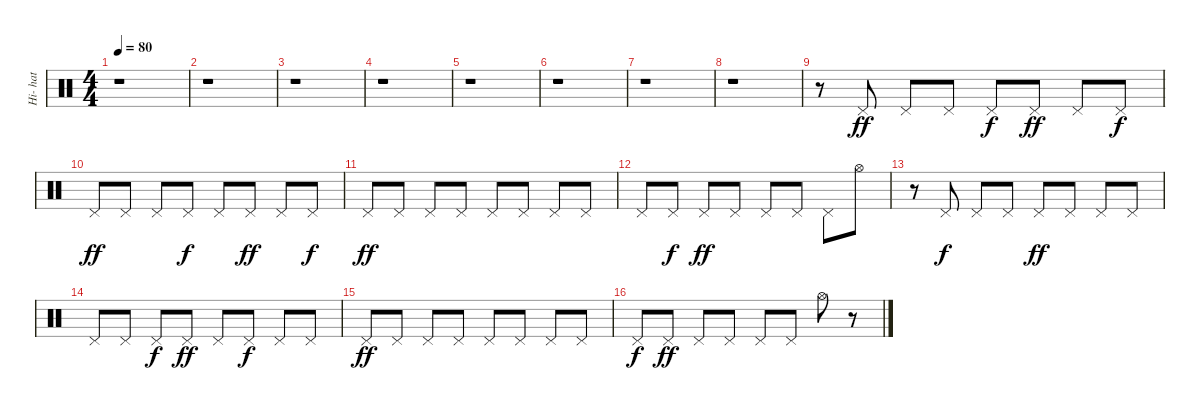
\track ("Hi- hat" "Hi- hat") {instrument percussion}
\staff {score}
\articulation defaults
\ts (4 4)
\tempo 80
\clef neutral
\ks c
r.1{dy ff} |
r.1 |
r.1 |
r.1 |
r.1 |
r.1 |
r.1 |
r.1 |
r.8 "Pedal Hi-Hat (hit)".8 "Pedal Hi-Hat (hit)".8 "Pedal Hi-Hat (hit)".8 "Pedal Hi-Hat (hit)".8{dy f} "Pedal Hi-Hat (hit)".8{dy ff} "Pedal Hi-Hat (hit)".8 "Pedal Hi-Hat (hit)".8{dy f} |
"Pedal Hi-Hat (hit)".8{dy ff} "Pedal Hi-Hat (hit)".8 "Pedal Hi-Hat (hit)".8 "Pedal Hi-Hat (hit)".8{dy f} "Pedal Hi-Hat (hit)".8 "Pedal Hi-Hat (hit)".8{dy ff} "Pedal Hi-Hat (hit)".8 "Pedal Hi-Hat (hit)".8{dy f} |
"Pedal Hi-Hat (hit)".8{dy ff} "Pedal Hi-Hat (hit)".8 "Pedal Hi-Hat (hit)".8 "Pedal Hi-Hat (hit)".8 "Pedal Hi-Hat (hit)".8 "Pedal Hi-Hat (hit)".8 "Pedal Hi-Hat (hit)".8 "Pedal Hi-Hat (hit)".8 |
"Pedal Hi-Hat (hit)".8 "Pedal Hi-Hat (hit)".8{dy f} "Pedal Hi-Hat (hit)".8{dy ff} "Pedal Hi-Hat (hit)".8 "Pedal Hi-Hat (hit)".8 "Pedal Hi-Hat (hit)".8 "Pedal Hi-Hat (hit)".8 "Hi-Hat (open)".8 |
r.8 "Pedal Hi-Hat (hit)".8{dy f} "Pedal Hi-Hat (hit)".8 "Pedal Hi-Hat (hit)".8 "Pedal Hi-Hat (hit)".8{dy ff} "Pedal Hi-Hat (hit)".8 "Pedal Hi-Hat (hit)".8 "Pedal Hi-Hat (hit)".8 |
"Pedal Hi-Hat (hit)".8 "Pedal Hi-Hat (hit)".8 "Pedal Hi-Hat (hit)".8{dy f} "Pedal Hi-Hat (hit)".8{dy ff} "Pedal Hi-Hat (hit)".8 "Pedal Hi-Hat (hit)".8{dy f} "Pedal Hi-Hat (hit)".8 "Pedal Hi-Hat (hit)".8 |
"Pedal Hi-Hat (hit)".8{dy ff} "Pedal Hi-Hat (hit)".8 "Pedal Hi-Hat (hit)".8 "Pedal Hi-Hat (hit)".8 "Pedal Hi-Hat (hit)".8 "Pedal Hi-Hat (hit)".8 "Pedal Hi-Hat (hit)".8 "Pedal Hi-Hat (hit)".8 |
"Pedal Hi-Hat (hit)".8{dy f} "Pedal Hi-Hat (hit)".8{dy ff} "Pedal Hi-Hat (hit)".8 "Pedal Hi-Hat (hit)".8 "Pedal Hi-Hat (hit)".8 "Pedal Hi-Hat (hit)".8 "Hi-Hat (open)".8 r.8
